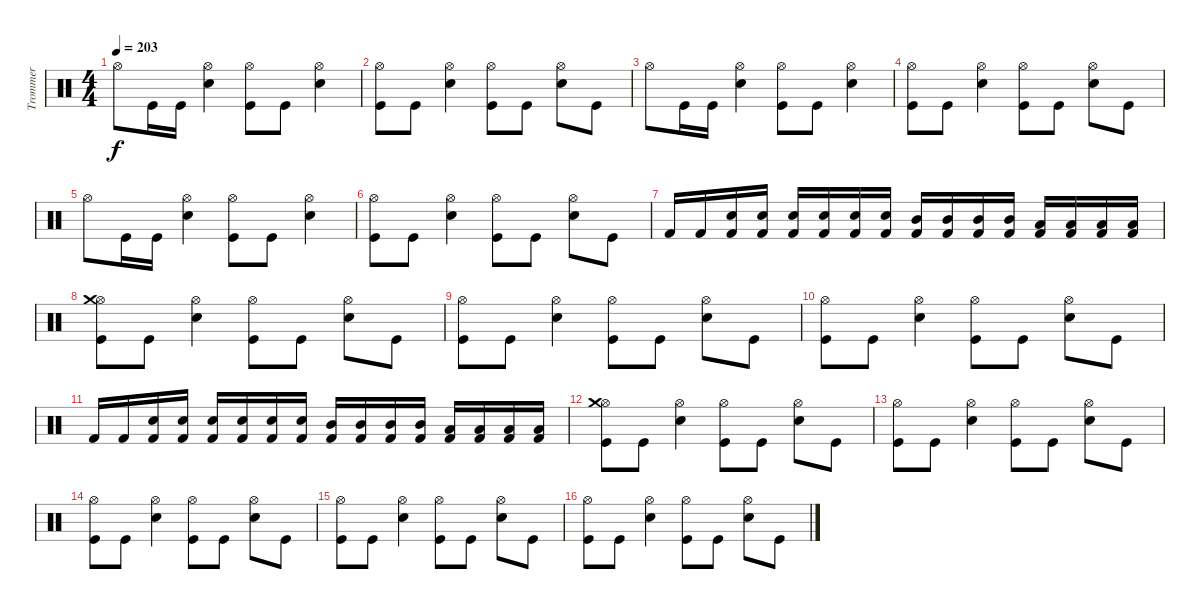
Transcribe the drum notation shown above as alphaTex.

\track ("Trommer" "Trommer") {instrument percussion}
\staff {score}
\articulation defaults
\ts (4 4)
\tempo 203
\clef neutral
\ks c "Hi-Hat (open)".8{dy f} "Kick (hit)".16 "Kick (hit)".16
("Snare (hit) 2" "Hi-Hat (open)").4 ("Kick (hit)" "Hi-Hat (open)").8 "Kick (hit)".8 ("Snare (hit) 2" "Hi-Hat (open)").4 |
("Hi-Hat (open)" "Kick (hit)").8 "Kick (hit)".8 ("Hi-Hat (open)" "Snare (hit) 2").4 ("Hi-Hat (open)" "Kick (hit)").8 "Kick (hit)".8 ("Snare (hit) 2" "Hi-Hat (open)").8 "Kick (hit)".8 |
"Hi-Hat (open)".8 "Kick (hit)".16 "Kick (hit)".16 ("Snare (hit) 2" "Hi-Hat (open)").4 ("Kick (hit)" "Hi-Hat (open)").8 "Kick (hit)".8 ("Snare (hit) 2" "Hi-Hat (open)").4 |
("Hi-Hat (open)" "Kick (hit)").8 "Kick (hit)".8 ("Hi-Hat (open)" "Snare (hit) 2").4 ("Hi-Hat (open)" "Kick (hit)").8 "Kick (hit)".8 ("Snare (hit) 2" "Hi-Hat (open)").8 "Kick (hit)".8 |
"Hi-Hat (open)".8 "Kick (hit)".16 "Kick (hit)".16 ("Snare (hit) 2" "Hi-Hat (open)").4 ("Kick (hit)" "Hi-Hat (open)").8 "Kick (hit)".8 ("Snare (hit) 2" "Hi-Hat (open)").4 |
("Hi-Hat (open)" "Kick (hit)").8 "Kick (hit)".8 ("Hi-Hat (open)" "Snare (hit) 2").4 ("Hi-Hat (open)" "Kick (hit)").8 "Kick (hit)".8 ("Snare (hit) 2" "Hi-Hat (open)").8 "Kick (hit)".8 |
"Kick (hit) 2".16 "Kick (hit) 2".16 ("Snare (hit) 2" "Kick (hit) 2").16 ("Snare (hit) 2" "Kick (hit) 2").16 ("Snare (hit) 2" "Kick (hit) 2").16 ("Snare (hit) 2" "Kick (hit) 2").16 ("Snare (hit) 2" "Kick (hit) 2").16 ("Snare (hit) 2" "Kick (hit) 2").16 ("Mid Tom (hit)" "Kick (hit) 2").16 ("Mid Tom (hit)" "Kick (hit) 2").16 ("Mid Tom (hit)" "Kick (hit) 2").16 ("Mid Tom (hit)" "Kick (hit) 2").16 ("Low Tom (hit)" "Kick (hit) 2").16 ("Low Tom (hit)" "Kick (hit) 2").16 ("Low Tom (hit)" "Kick (hit) 2").16 ("Low Tom (hit)" "Kick (hit) 2").16 |
("Hi-Hat (open)" "Kick (hit)" "Crash medium (hit)").8 "Kick (hit)".8 ("Hi-Hat (open)" "Snare (hit) 2").4 ("Hi-Hat (open)" "Kick (hit)").8 "Kick (hit)".8 ("Snare (hit) 2" "Hi-Hat (open)").8 "Kick (hit)".8 |
("Hi-Hat (open)" "Kick (hit)").8 "Kick (hit)".8 ("Hi-Hat (open)" "Snare (hit) 2").4 ("Hi-Hat (open)" "Kick (hit)").8 "Kick (hit)".8 ("Snare (hit) 2" "Hi-Hat (open)").8 "Kick (hit)".8 |
("Hi-Hat (open)" "Kick (hit)").8 "Kick (hit)".8 ("Hi-Hat (open)" "Snare (hit) 2").4 ("Hi-Hat (open)" "Kick (hit)").8 "Kick (hit)".8 ("Snare (hit) 2" "Hi-Hat (open)").8 "Kick (hit)".8 |
"Kick (hit) 2".16 "Kick (hit) 2".16 ("Snare (hit) 2" "Kick (hit) 2").16 ("Snare (hit) 2" "Kick (hit) 2").16 ("Snare (hit) 2" "Kick (hit) 2").16 ("Snare (hit) 2" "Kick (hit) 2").16 ("Snare (hit) 2" "Kick (hit) 2").16 ("Snare (hit) 2" "Kick (hit) 2").16 ("Mid Tom (hit)" "Kick (hit) 2").16 ("Mid Tom (hit)" "Kick (hit) 2").16 ("Mid Tom (hit)" "Kick (hit) 2").16 ("Mid Tom (hit)" "Kick (hit) 2").16 ("Low Tom (hit)" "Kick (hit) 2").16 ("Low Tom (hit)" "Kick (hit) 2").16 ("Low Tom (hit)" "Kick (hit) 2").16 ("Low Tom (hit)" "Kick (hit) 2").16 |
("Hi-Hat (open)" "Kick (hit)" "Crash medium (hit)").8 "Kick (hit)".8 ("Hi-Hat (open)" "Snare (hit) 2").4 ("Hi-Hat (open)" "Kick (hit)").8 "Kick (hit)".8 ("Snare (hit) 2" "Hi-Hat (open)").8 "Kick (hit)".8 |
("Hi-Hat (open)" "Kick (hit)").8 "Kick (hit)".8 ("Hi-Hat (open)" "Snare (hit) 2").4 ("Hi-Hat (open)" "Kick (hit)").8 "Kick (hit)".8 ("Snare (hit) 2" "Hi-Hat (open)").8 "Kick (hit)".8 |
("Hi-Hat (open)" "Kick (hit)").8 "Kick (hit)".8 ("Hi-Hat (open)" "Snare (hit) 2").4 ("Hi-Hat (open)" "Kick (hit)").8 "Kick (hit)".8 ("Snare (hit) 2" "Hi-Hat (open)").8 "Kick (hit)".8 |
("Hi-Hat (open)" "Kick (hit)").8 "Kick (hit)".8 ("Hi-Hat (open)" "Snare (hit) 2").4 ("Hi-Hat (open)" "Kick (hit)").8 "Kick (hit)".8 ("Snare (hit) 2" "Hi-Hat (open)").8 "Kick (hit)".8 |
("Hi-Hat (open)" "Kick (hit)").8 "Kick (hit)".8 ("Hi-Hat (open)" "Snare (hit) 2").4 ("Hi-Hat (open)" "Kick (hit)").8 "Kick (hit)".8 ("Snare (hit) 2" "Hi-Hat (open)").8 "Kick (hit)".8
